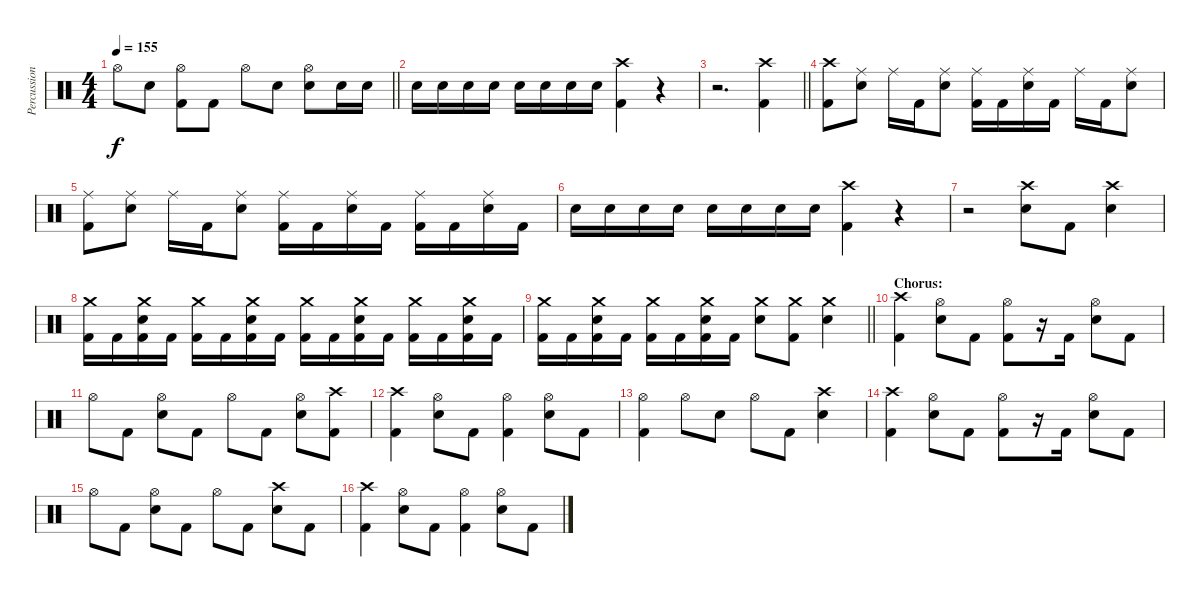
\track ("Percussion" "Percussion") {instrument percussion}
\staff {score}
\articulation defaults
\ts (4 4)
\tempo 155
\clef neutral
\barLineRight lightlight
\ks c "Hi-Hat (open)".8{dy f} "Electric Snare (hit)".8
("Hi-Hat (open)" "Kick (hit) 2").8 "Kick (hit) 2".8 "Hi-Hat (open)".8 "Electric Snare (hit)".8 ("Hi-Hat (open)" "Electric Snare (hit)").8 "Electric Snare (hit)".16 "Electric Snare (hit)".16 |
"Electric Snare (hit)".16 "Electric Snare (hit)".16 "Electric Snare (hit)".16 "Electric Snare (hit)".16 "Electric Snare (hit)".16 "Electric Snare (hit)".16 "Electric Snare (hit)".16 "Electric Snare (hit)".16 ("Crash high (hit)" "Kick (hit) 2").4 r.4 |
\barLineRight lightlight
r.2{d} ("Crash high (hit)" "Kick (hit) 2").4 |
("Crash high (hit)" "Kick (hit) 2").8 ("Ride (middle)" "Electric Snare (hit)").8 "Ride (middle)".16 "Kick (hit) 2".16 ("Ride (middle)" "Electric Snare (hit)").8 ("Ride (middle)" "Kick (hit) 2").16 "Kick (hit) 2".16 ("Ride (middle)" "Electric Snare (hit)").16 "Kick (hit) 2".16 "Ride (middle)".16 "Kick (hit) 2".16 ("Ride (middle)" "Electric Snare (hit)").8 |
("Ride (middle)" "Kick (hit) 2").8 ("Ride (middle)" "Electric Snare (hit)").8 "Ride (middle)".16 "Kick (hit) 2".16 ("Ride (middle)" "Electric Snare (hit)").8 ("Ride (middle)" "Kick (hit) 2").16 "Kick (hit) 2".16 ("Ride (middle)" "Electric Snare (hit)").16 "Kick (hit) 2".16 ("Ride (middle)" "Kick (hit) 2").16 "Kick (hit) 2".16 ("Ride (middle)" "Electric Snare (hit)").16 "Kick (hit) 2".16 |
"Electric Snare (hit)".16 "Electric Snare (hit)".16 "Electric Snare (hit)".16 "Electric Snare (hit)".16 "Electric Snare (hit)".16 "Electric Snare (hit)".16 "Electric Snare (hit)".16 "Electric Snare (hit)".16 ("Crash high (hit)" "Kick (hit) 2").4 r.4 |
r.2 ("Crash high (hit)" "Electric Snare (hit)").8 "Kick (hit) 2".8 ("Crash high (hit)" "Electric Snare (hit)").4 |
("Crash medium (hit)" "Kick (hit) 2").16 "Kick (hit) 2".16 ("Crash medium (hit)" "Electric Snare (hit)" "Kick (hit) 2").16 "Kick (hit) 2".16 ("Crash medium (hit)" "Kick (hit) 2").16 "Kick (hit) 2".16 ("Crash medium (hit)" "Electric Snare (hit)" "Kick (hit) 2").16 "Kick (hit) 2".16 ("Crash medium (hit)" "Kick (hit) 2").16 "Kick (hit) 2".16 ("Crash medium (hit)" "Electric Snare (hit)" "Kick (hit) 2").16 "Kick (hit) 2".16 ("Crash medium (hit)" "Kick (hit) 2").16 "Kick (hit) 2".16 ("Crash medium (hit)" "Electric Snare (hit)" "Kick (hit) 2").16 "Kick (hit) 2".16 |
\barLineRight lightlight
("Crash medium (hit)" "Kick (hit) 2").16 "Kick (hit) 2".16 ("Crash medium (hit)" "Electric Snare (hit)" "Kick (hit) 2").16 "Kick (hit) 2".16 ("Crash medium (hit)" "Kick (hit) 2").16 "Kick (hit) 2".16 ("Crash medium (hit)" "Electric Snare (hit)" "Kick (hit) 2").16 "Kick (hit) 2".16 ("Crash medium (hit)" "Electric Snare (hit)").8 ("Crash medium (hit)" "Kick (hit) 2").8 ("Crash medium (hit)" "Electric Snare (hit)").4 |
\section ("" "Chorus:")
("Crash high (hit)" "Kick (hit) 2").4 ("Hi-Hat (open)" "Electric Snare (hit)").8 "Kick (hit) 2".8 ("Hi-Hat (open)" "Kick (hit) 2").8 r.16 "Kick (hit) 2".16 ("Hi-Hat (open)" "Electric Snare (hit)").8 "Kick (hit) 2".8 |
"Hi-Hat (open)".8 "Kick (hit) 2".8 ("Hi-Hat (open)" "Electric Snare (hit)").8 "Kick (hit) 2".8 "Hi-Hat (open)".8 "Kick (hit) 2".8 ("Hi-Hat (open)" "Electric Snare (hit)").8 ("Crash high (hit)" "Kick (hit) 2").8 |
("Crash high (hit)" "Kick (hit) 2").4 ("Hi-Hat (open)" "Electric Snare (hit)").8 "Kick (hit) 2".8 ("Hi-Hat (open)" "Kick (hit) 2").4 ("Hi-Hat (open)" "Electric Snare (hit)").8 "Kick (hit) 2".8 |
("Hi-Hat (open)" "Kick (hit) 2").4 "Hi-Hat (open)".8 "Electric Snare (hit)".8 "Hi-Hat (open)".8 "Kick (hit) 2".8 ("Crash high (hit)" "Electric Snare (hit)").4 |
("Crash high (hit)" "Kick (hit) 2").4 ("Hi-Hat (open)" "Electric Snare (hit)").8 "Kick (hit) 2".8 ("Hi-Hat (open)" "Kick (hit) 2").8 r.16 "Kick (hit) 2".16 ("Hi-Hat (open)" "Electric Snare (hit)").8 "Kick (hit) 2".8 |
"Hi-Hat (open)".8 "Kick (hit) 2".8 ("Hi-Hat (open)" "Electric Snare (hit)").8 "Kick (hit) 2".8 "Hi-Hat (open)".8 "Kick (hit) 2".8 ("Crash high (hit)" "Electric Snare (hit)").8 "Kick (hit) 2".8 |
("Crash high (hit)" "Kick (hit) 2").4 ("Hi-Hat (open)" "Electric Snare (hit)").8 "Kick (hit) 2".8 ("Hi-Hat (open)" "Kick (hit) 2").4 ("Hi-Hat (open)" "Electric Snare (hit)").8 "Kick (hit) 2".8
